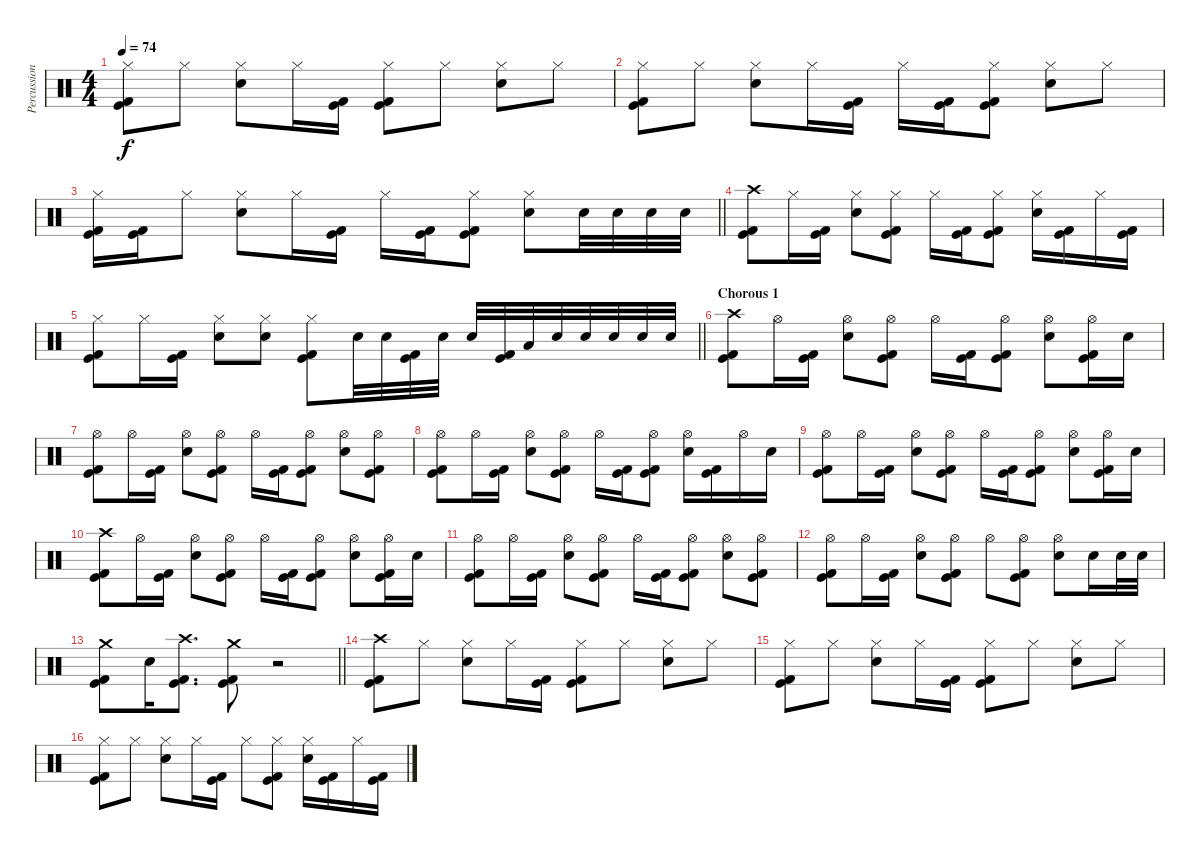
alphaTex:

\track ("Percussion" "Percussion") {instrument percussion}
\staff {score}
\articulation defaults
\ts (4 4)
\tempo 74
\clef neutral
\ks c
("Hi-Hat (closed)" "Kick (hit)" "Kick (hit) 2").8{dy f} "Hi-Hat (closed)".8 ("Hi-Hat (closed)" "Electric Snare (hit)").8 "Hi-Hat (closed)".16 ("Kick (hit)" "Kick (hit) 2").16 ("Hi-Hat (closed)" "Kick (hit)" "Kick (hit) 2").8 "Hi-Hat (closed)".8 ("Hi-Hat (closed)" "Electric Snare (hit)").8 "Hi-Hat (closed)".8 |
("Hi-Hat (closed)" "Kick (hit)" "Kick (hit) 2").8 "Hi-Hat (closed)".8 ("Hi-Hat (closed)" "Electric Snare (hit)").8 "Hi-Hat (closed)".16 ("Kick (hit)" "Kick (hit) 2").16 "Hi-Hat (closed)".16 ("Kick (hit)" "Kick (hit) 2").16 ("Hi-Hat (closed)" "Kick (hit)" "Kick (hit) 2").8 ("Hi-Hat (closed)" "Electric Snare (hit)").8 "Hi-Hat (closed)".8 |
\barLineRight lightlight
("Hi-Hat (closed)" "Kick (hit)" "Kick (hit) 2").16 ("Kick (hit)" "Kick (hit) 2").16 "Hi-Hat (closed)".8 ("Hi-Hat (closed)" "Electric Snare (hit)").8 "Hi-Hat (closed)".16 ("Kick (hit)" "Kick (hit) 2").16 "Hi-Hat (closed)".16 ("Kick (hit)" "Kick (hit) 2").16 ("Hi-Hat (closed)" "Kick (hit)" "Kick (hit) 2").8 ("Hi-Hat (closed)" "Electric Snare (hit)").8 "Electric Snare (hit)".32 "Electric Snare (hit)".32 "Electric Snare (hit)".32 "Electric Snare (hit)".32 |
\section ("" "")
("Crash high (hit)" "Kick (hit)" "Kick (hit) 2").8 "Hi-Hat (closed)".16 ("Kick (hit)" "Kick (hit) 2").16 ("Hi-Hat (closed)" "Electric Snare (hit)").8 ("Hi-Hat (closed)" "Kick (hit)" "Kick (hit) 2").8 "Hi-Hat (closed)".16 ("Kick (hit)" "Kick (hit) 2").16 ("Hi-Hat (closed)" "Kick (hit)" "Kick (hit) 2").8 ("Hi-Hat (closed)" "Electric Snare (hit)").16 ("Kick (hit)" "Kick (hit) 2").16 "Hi-Hat (closed)".16 ("Kick (hit)" "Kick (hit) 2").16 |
\barLineRight lightlight
("Hi-Hat (closed)" "Kick (hit)" "Kick (hit) 2").8 "Hi-Hat (closed)".16 ("Kick (hit)" "Kick (hit) 2").16 ("Hi-Hat (closed)" "Electric Snare (hit)").8 ("Hi-Hat (closed)" "Electric Snare (hit)").8 ("Hi-Hat (closed)" "Kick (hit)" "Kick (hit) 2").8 "Electric Snare (hit)".32 "Electric Snare (hit)".32 ("Kick (hit)" "Kick (hit) 2").32 "Electric Snare (hit)".32 "Electric Snare (hit)".32 ("Kick (hit)" "Kick (hit) 2").32 "Low Tom (hit)".32 "Electric Snare (hit)".32 "Electric Snare (hit)".32 "Electric Snare (hit)".32 "Electric Snare (hit)".32 "Electric Snare (hit)".32 |
\section ("" "Chorous 1")
("Crash high (hit)" "Kick (hit)" "Kick (hit) 2").8 "Hi-Hat (open)".16 ("Kick (hit)" "Kick (hit) 2").16 ("Hi-Hat (open)" "Electric Snare (hit)").8 ("Hi-Hat (open)" "Kick (hit)" "Kick (hit) 2").8 "Hi-Hat (open)".16 ("Kick (hit)" "Kick (hit) 2").16 ("Hi-Hat (open)" "Kick (hit)" "Kick (hit) 2").8 ("Hi-Hat (open)" "Electric Snare (hit)").8 ("Hi-Hat (open)" "Kick (hit)" "Kick (hit) 2").16 "Electric Snare (hit)".16 |
("Hi-Hat (open)" "Kick (hit)" "Kick (hit) 2").8 "Hi-Hat (open)".16 ("Kick (hit)" "Kick (hit) 2").16 ("Hi-Hat (open)" "Electric Snare (hit)").8 ("Hi-Hat (open)" "Kick (hit)" "Kick (hit) 2").8 "Hi-Hat (open)".16 ("Kick (hit)" "Kick (hit) 2").16 ("Hi-Hat (open)" "Kick (hit)" "Kick (hit) 2").8 ("Hi-Hat (open)" "Electric Snare (hit)").8 ("Hi-Hat (open)" "Kick (hit)" "Kick (hit) 2").8 |
("Hi-Hat (open)" "Kick (hit)" "Kick (hit) 2").8 "Hi-Hat (open)".16 ("Kick (hit)" "Kick (hit) 2").16 ("Hi-Hat (open)" "Electric Snare (hit)").8 ("Hi-Hat (open)" "Kick (hit)" "Kick (hit) 2").8 "Hi-Hat (open)".16 ("Kick (hit)" "Kick (hit) 2").16 ("Hi-Hat (open)" "Kick (hit)" "Kick (hit) 2").8 ("Hi-Hat (open)" "Electric Snare (hit)").16 ("Kick (hit)" "Kick (hit) 2").16 "Hi-Hat (open)".16 "Electric Snare (hit)".16 |
("Hi-Hat (open)" "Kick (hit)" "Kick (hit) 2").8 "Hi-Hat (open)".16 ("Kick (hit)" "Kick (hit) 2").16 ("Hi-Hat (open)" "Electric Snare (hit)").8 ("Hi-Hat (open)" "Kick (hit)" "Kick (hit) 2").8 "Hi-Hat (open)".16 ("Kick (hit)" "Kick (hit) 2").16 ("Hi-Hat (open)" "Kick (hit)" "Kick (hit) 2").8 ("Hi-Hat (open)" "Electric Snare (hit)").8 ("Hi-Hat (open)" "Kick (hit)" "Kick (hit) 2").16 "Electric Snare (hit)".16 |
("Crash high (hit)" "Kick (hit)" "Kick (hit) 2").8 "Hi-Hat (open)".16 ("Kick (hit)" "Kick (hit) 2").16 ("Hi-Hat (open)" "Electric Snare (hit)").8 ("Hi-Hat (open)" "Kick (hit)" "Kick (hit) 2").8 "Hi-Hat (open)".16 ("Kick (hit)" "Kick (hit) 2").16 ("Hi-Hat (open)" "Kick (hit)" "Kick (hit) 2").8 ("Hi-Hat (open)" "Electric Snare (hit)").8 ("Hi-Hat (open)" "Kick (hit)" "Kick (hit) 2").16 "Electric Snare (hit)".16 |
("Hi-Hat (open)" "Kick (hit)" "Kick (hit) 2").8 "Hi-Hat (open)".16 ("Kick (hit)" "Kick (hit) 2").16 ("Hi-Hat (open)" "Electric Snare (hit)").8 ("Hi-Hat (open)" "Kick (hit)" "Kick (hit) 2").8 "Hi-Hat (open)".16 ("Kick (hit)" "Kick (hit) 2").16 ("Hi-Hat (open)" "Kick (hit)" "Kick (hit) 2").8 ("Hi-Hat (open)" "Electric Snare (hit)").8 ("Hi-Hat (open)" "Kick (hit)" "Kick (hit) 2").8 |
("Hi-Hat (open)" "Kick (hit)" "Kick (hit) 2").8 "Hi-Hat (open)".16 ("Kick (hit)" "Kick (hit) 2").16 ("Hi-Hat (open)" "Electric Snare (hit)").8 ("Hi-Hat (open)" "Kick (hit)" "Kick (hit) 2").8 "Hi-Hat (open)".8 ("Hi-Hat (open)" "Kick (hit)" "Kick (hit) 2").8 ("Hi-Hat (open)" "Electric Snare (hit)").8 "Electric Snare (hit)".16 "Electric Snare (hit)".32 "Electric Snare (hit)".32 |
\barLineRight lightlight
("Crash medium (hit)" "Kick (hit)" "Kick (hit) 2").8 "Electric Snare (hit)".16 ("Crash high (hit)" "Kick (hit)" "Kick (hit) 2").8{d} ("Crash medium (hit)" "Kick (hit)" "Kick (hit) 2").8 r.2 |
\section ("" "")
("Crash high (hit)" "Kick (hit)" "Kick (hit) 2").8 "Hi-Hat (closed)".8 ("Hi-Hat (closed)" "Electric Snare (hit)").8 "Hi-Hat (closed)".16 ("Kick (hit)" "Kick (hit) 2").16 ("Hi-Hat (closed)" "Kick (hit)" "Kick (hit) 2").8 "Hi-Hat (closed)".8 ("Hi-Hat (closed)" "Electric Snare (hit)").8 "Hi-Hat (closed)".8 |
("Hi-Hat (closed)" "Kick (hit)" "Kick (hit) 2").8 "Hi-Hat (closed)".8 ("Hi-Hat (closed)" "Electric Snare (hit)").8 "Hi-Hat (closed)".16 ("Kick (hit)" "Kick (hit) 2").16 ("Hi-Hat (closed)" "Kick (hit)" "Kick (hit) 2").8 "Hi-Hat (closed)".8 ("Hi-Hat (closed)" "Electric Snare (hit)").8 "Hi-Hat (closed)".8 |
("Hi-Hat (closed)" "Kick (hit)" "Kick (hit) 2").8 "Hi-Hat (closed)".8 ("Hi-Hat (closed)" "Electric Snare (hit)").8 "Hi-Hat (closed)".16 ("Kick (hit)" "Kick (hit) 2").16 "Hi-Hat (closed)".8 ("Hi-Hat (closed)" "Kick (hit)" "Kick (hit) 2").8 ("Hi-Hat (closed)" "Electric Snare (hit)").16 ("Kick (hit)" "Kick (hit) 2").16 "Hi-Hat (closed)".16 ("Kick (hit)" "Kick (hit) 2").16
